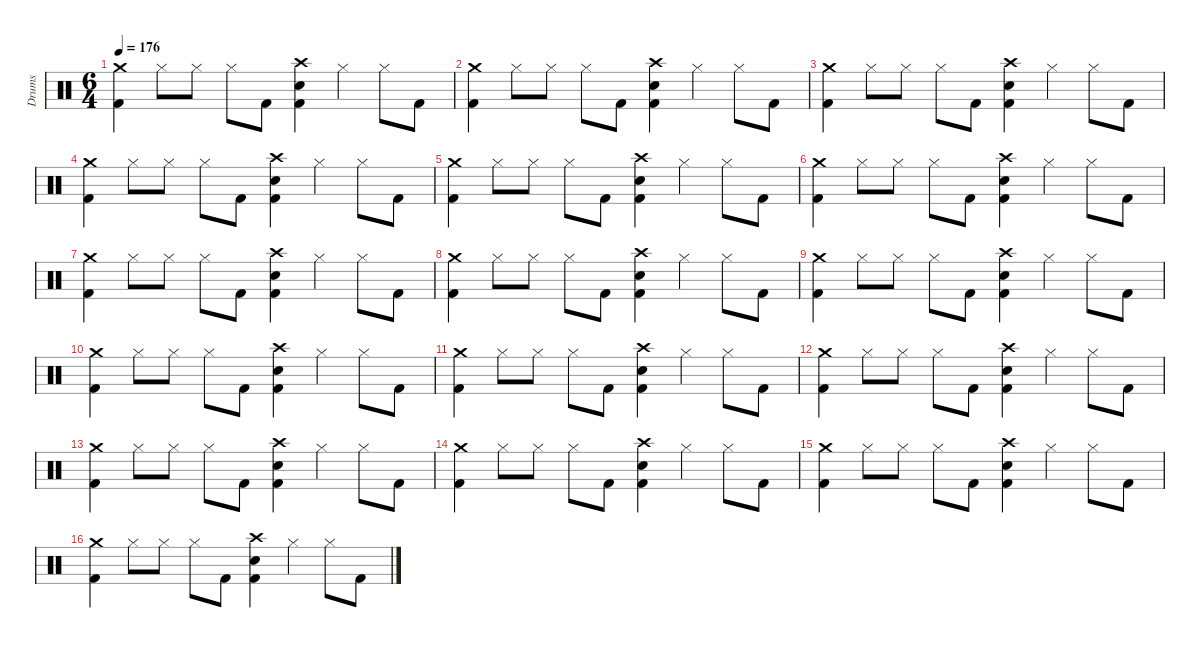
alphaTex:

\hideDynamics
\bracketExtendMode groupsimilarinstruments
\otherSystemsTrackNameOrientation horizontal
\track ("Drumkit" "Drums") {defaultSystemsLayout 4 instrument percussion}
\staff {score}
\articulation defaults
\ts (6 4)
\tempo 176
\clef neutral
\ks c
("Crash medium (hit)" "Kick (hit) 2").4{dy ff beam Down} "Hi-Hat (closed)".8{dy f beam Down} "Hi-Hat (closed)".8{beam Down} "Hi-Hat (closed)".8{beam Down} "Kick (hit) 2".8{beam Down} ("Crash high (hit)" "Snare (hit) 2" "Kick (hit) 2").4{beam Down} "Hi-Hat (closed)".4{beam Down} "Hi-Hat (closed)".8{beam Down} "Kick (hit) 2".8{beam Down} |
("Crash medium (hit)" "Kick (hit) 2").4{dy ff beam Down} "Hi-Hat (closed)".8{dy f beam Down} "Hi-Hat (closed)".8{beam Down} "Hi-Hat (closed)".8{beam Down} "Kick (hit) 2".8{beam Down} ("Crash high (hit)" "Snare (hit) 2" "Kick (hit) 2").4{beam Down} "Hi-Hat (closed)".4{beam Down} "Hi-Hat (closed)".8{beam Down} "Kick (hit) 2".8{beam Down} |
("Crash medium (hit)" "Kick (hit) 2").4{dy ff beam Down} "Hi-Hat (closed)".8{dy f beam Down} "Hi-Hat (closed)".8{beam Down} "Hi-Hat (closed)".8{beam Down} "Kick (hit) 2".8{beam Down} ("Crash high (hit)" "Snare (hit) 2" "Kick (hit) 2").4{beam Down} "Hi-Hat (closed)".4{beam Down} "Hi-Hat (closed)".8{beam Down} "Kick (hit) 2".8{beam Down} |
("Crash medium (hit)" "Kick (hit) 2").4{dy ff beam Down} "Hi-Hat (closed)".8{dy f beam Down} "Hi-Hat (closed)".8{beam Down} "Hi-Hat (closed)".8{beam Down} "Kick (hit) 2".8{beam Down} ("Crash high (hit)" "Snare (hit) 2" "Kick (hit) 2").4{beam Down} "Hi-Hat (closed)".4{beam Down} "Hi-Hat (closed)".8{beam Down} "Kick (hit) 2".8{beam Down} |
("Crash medium (hit)" "Kick (hit) 2").4{dy ff beam Down} "Hi-Hat (closed)".8{dy f beam Down} "Hi-Hat (closed)".8{beam Down} "Hi-Hat (closed)".8{beam Down} "Kick (hit) 2".8{beam Down} ("Crash high (hit)" "Snare (hit) 2" "Kick (hit) 2").4{beam Down} "Hi-Hat (closed)".4{beam Down} "Hi-Hat (closed)".8{beam Down} "Kick (hit) 2".8{beam Down} |
("Crash medium (hit)" "Kick (hit) 2").4{dy ff beam Down} "Hi-Hat (closed)".8{dy f beam Down} "Hi-Hat (closed)".8{beam Down} "Hi-Hat (closed)".8{beam Down} "Kick (hit) 2".8{beam Down} ("Crash high (hit)" "Snare (hit) 2" "Kick (hit) 2").4{beam Down} "Hi-Hat (closed)".4{beam Down} "Hi-Hat (closed)".8{beam Down} "Kick (hit) 2".8{beam Down} |
("Crash medium (hit)" "Kick (hit) 2").4{dy ff beam Down} "Hi-Hat (closed)".8{dy f beam Down} "Hi-Hat (closed)".8{beam Down} "Hi-Hat (closed)".8{beam Down} "Kick (hit) 2".8{beam Down} ("Crash high (hit)" "Snare (hit) 2" "Kick (hit) 2").4{beam Down} "Hi-Hat (closed)".4{beam Down} "Hi-Hat (closed)".8{beam Down} "Kick (hit) 2".8{beam Down} |
("Crash medium (hit)" "Kick (hit) 2").4{dy ff beam Down} "Hi-Hat (closed)".8{dy f beam Down} "Hi-Hat (closed)".8{beam Down} "Hi-Hat (closed)".8{beam Down} "Kick (hit) 2".8{beam Down} ("Crash high (hit)" "Snare (hit) 2" "Kick (hit) 2").4{beam Down} "Hi-Hat (closed)".4{beam Down} "Hi-Hat (closed)".8{beam Down} "Kick (hit) 2".8{beam Down} |
("Crash medium (hit)" "Kick (hit) 2").4{dy ff beam Down} "Hi-Hat (closed)".8{dy f beam Down} "Hi-Hat (closed)".8{beam Down} "Hi-Hat (closed)".8{beam Down} "Kick (hit) 2".8{beam Down} ("Crash high (hit)" "Snare (hit) 2" "Kick (hit) 2").4{beam Down} "Hi-Hat (closed)".4{beam Down} "Hi-Hat (closed)".8{beam Down} "Kick (hit) 2".8{beam Down} |
("Crash medium (hit)" "Kick (hit) 2").4{dy ff beam Down} "Hi-Hat (closed)".8{dy f beam Down} "Hi-Hat (closed)".8{beam Down} "Hi-Hat (closed)".8{beam Down} "Kick (hit) 2".8{beam Down} ("Crash high (hit)" "Snare (hit) 2" "Kick (hit) 2").4{beam Down} "Hi-Hat (closed)".4{beam Down} "Hi-Hat (closed)".8{beam Down} "Kick (hit) 2".8{beam Down} |
("Crash medium (hit)" "Kick (hit) 2").4{dy ff beam Down} "Hi-Hat (closed)".8{dy f beam Down} "Hi-Hat (closed)".8{beam Down} "Hi-Hat (closed)".8{beam Down} "Kick (hit) 2".8{beam Down} ("Crash high (hit)" "Snare (hit) 2" "Kick (hit) 2").4{beam Down} "Hi-Hat (closed)".4{beam Down} "Hi-Hat (closed)".8{beam Down} "Kick (hit) 2".8{beam Down} |
("Crash medium (hit)" "Kick (hit) 2").4{dy ff beam Down} "Hi-Hat (closed)".8{dy f beam Down} "Hi-Hat (closed)".8{beam Down} "Hi-Hat (closed)".8{beam Down} "Kick (hit) 2".8{beam Down} ("Crash high (hit)" "Snare (hit) 2" "Kick (hit) 2").4{beam Down} "Hi-Hat (closed)".4{beam Down} "Hi-Hat (closed)".8{beam Down} "Kick (hit) 2".8{beam Down} |
("Crash medium (hit)" "Kick (hit) 2").4{dy ff beam Down} "Hi-Hat (closed)".8{dy f beam Down} "Hi-Hat (closed)".8{beam Down} "Hi-Hat (closed)".8{beam Down} "Kick (hit) 2".8{beam Down} ("Crash high (hit)" "Snare (hit) 2" "Kick (hit) 2").4{beam Down} "Hi-Hat (closed)".4{beam Down} "Hi-Hat (closed)".8{beam Down} "Kick (hit) 2".8{beam Down} |
("Crash medium (hit)" "Kick (hit) 2").4{dy ff beam Down} "Hi-Hat (closed)".8{dy f beam Down} "Hi-Hat (closed)".8{beam Down} "Hi-Hat (closed)".8{beam Down} "Kick (hit) 2".8{beam Down} ("Crash high (hit)" "Snare (hit) 2" "Kick (hit) 2").4{beam Down} "Hi-Hat (closed)".4{beam Down} "Hi-Hat (closed)".8{beam Down} "Kick (hit) 2".8{beam Down} |
("Crash medium (hit)" "Kick (hit) 2").4{dy ff beam Down} "Hi-Hat (closed)".8{dy f beam Down} "Hi-Hat (closed)".8{beam Down} "Hi-Hat (closed)".8{beam Down} "Kick (hit) 2".8{beam Down} ("Crash high (hit)" "Snare (hit) 2" "Kick (hit) 2").4{beam Down} "Hi-Hat (closed)".4{beam Down} "Hi-Hat (closed)".8{beam Down} "Kick (hit) 2".8{beam Down} |
("Crash medium (hit)" "Kick (hit) 2").4{dy ff beam Down} "Hi-Hat (closed)".8{dy f beam Down} "Hi-Hat (closed)".8{beam Down} "Hi-Hat (closed)".8{beam Down} "Kick (hit) 2".8{beam Down} ("Crash high (hit)" "Snare (hit) 2" "Kick (hit) 2").4{beam Down} "Hi-Hat (closed)".4{beam Down} "Hi-Hat (closed)".8{beam Down} "Kick (hit) 2".8{beam Down}
